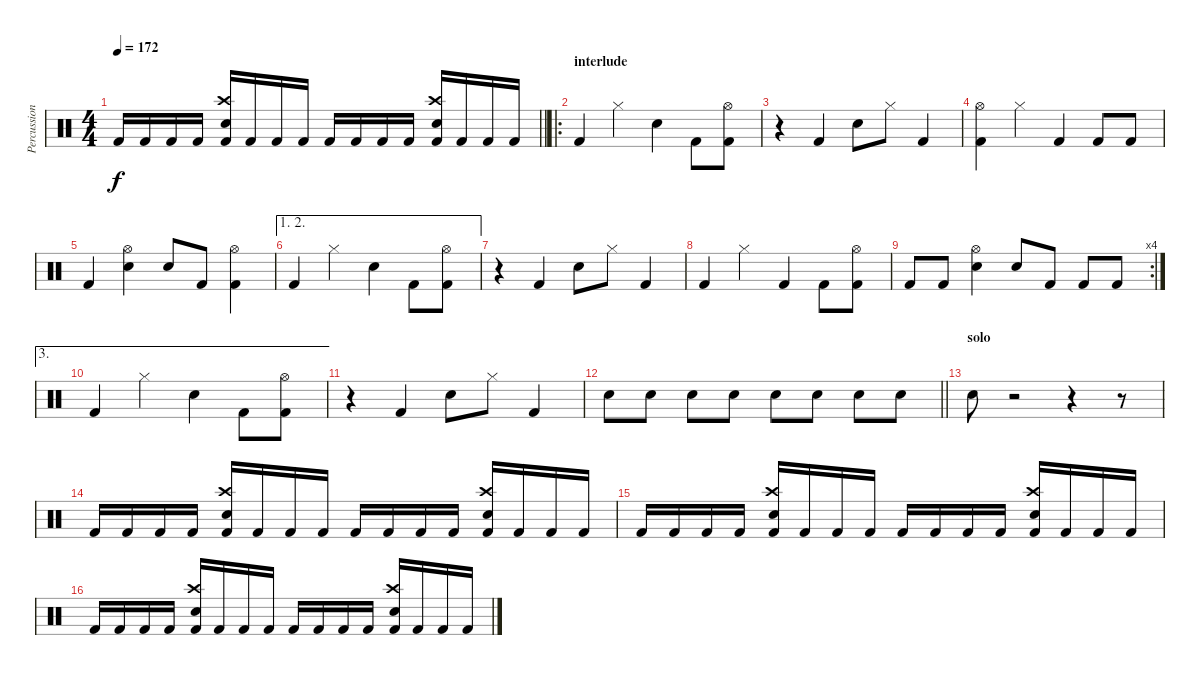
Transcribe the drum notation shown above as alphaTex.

\track ("Percussion" "Percussion") {instrument percussion}
\staff {score}
\articulation defaults
\ts (4 4)
\tempo 172
\clef neutral
\barLineRight lightlight
\ks c "Kick (hit) 2".16{dy f} "Kick (hit) 2".16 "Kick (hit) 2".16 "Kick (hit) 2".16
("Crash high (hit)" "Electric Snare (hit)" "Kick (hit) 2").16 "Kick (hit) 2".16 "Kick (hit) 2".16 "Kick (hit) 2".16 "Kick (hit) 2".16 "Kick (hit) 2".16 "Kick (hit) 2".16 "Kick (hit) 2".16 ("Crash high (hit)" "Electric Snare (hit)" "Kick (hit) 2").16 "Kick (hit) 2".16 "Kick (hit) 2".16 "Kick (hit) 2".16 |
\ro
\section ("" "interlude")
"Kick (hit) 2".4 "Hi-Hat (closed)".4 "Electric Snare (hit)".4 "Kick (hit) 2".8 ("Hi-Hat (open)" "Kick (hit) 2").8 |
r.4 "Kick (hit) 2".4 "Electric Snare (hit)".8 "Hi-Hat (closed)".8 "Kick (hit) 2".4 |
("Hi-Hat (open)" "Kick (hit) 2").4 "Hi-Hat (closed)".4 "Kick (hit) 2".4 "Kick (hit) 2".8 "Kick (hit) 2".8 |
"Kick (hit) 2".4 ("Hi-Hat (open)" "Electric Snare (hit)").4 "Electric Snare (hit)".8 "Kick (hit) 2".8 ("Hi-Hat (open)" "Kick (hit) 2").4 |
\ae (1 2)
"Kick (hit) 2".4 "Hi-Hat (closed)".4 "Electric Snare (hit)".4 "Kick (hit) 2".8 ("Hi-Hat (open)" "Kick (hit) 2").8 |
r.4 "Kick (hit) 2".4 "Electric Snare (hit)".8 "Hi-Hat (closed)".8 "Kick (hit) 2".4 |
"Kick (hit) 2".4 "Hi-Hat (closed)".4 "Kick (hit) 2".4 "Kick (hit) 2".8 ("Hi-Hat (open)" "Kick (hit) 2").8 |
\rc 4 "Kick (hit) 2".8 "Kick (hit) 2".8
("Hi-Hat (open)" "Electric Snare (hit)").4 "Electric Snare (hit)".8 "Kick (hit) 2".8 "Kick (hit) 2".8 "Kick (hit) 2".8 |
\ae 3 "Kick (hit) 2".4 "Hi-Hat (closed)".4 "Electric Snare (hit)".4 "Kick (hit) 2".8
("Hi-Hat (open)" "Kick (hit) 2").8 |
r.4 "Kick (hit) 2".4 "Electric Snare (hit)".8 "Hi-Hat (closed)".8 "Kick (hit) 2".4 |
\barLineRight lightlight "Electric Snare (hit)".8 "Electric Snare (hit)".8 "Electric Snare (hit)".8 "Electric Snare (hit)".8 "Electric Snare (hit)".8 "Electric Snare (hit)".8 "Electric Snare (hit)".8 "Electric Snare (hit)".8
|
\section ("" "solo")
"Electric Snare (hit)".8 r.2 r.4 r.8 |
"Kick (hit) 2".16 "Kick (hit) 2".16 "Kick (hit) 2".16 "Kick (hit) 2".16 ("Crash high (hit)" "Electric Snare (hit)" "Kick (hit) 2").16 "Kick (hit) 2".16 "Kick (hit) 2".16 "Kick (hit) 2".16 "Kick (hit) 2".16 "Kick (hit) 2".16 "Kick (hit) 2".16 "Kick (hit) 2".16 ("Crash high (hit)" "Electric Snare (hit)" "Kick (hit) 2").16 "Kick (hit) 2".16 "Kick (hit) 2".16 "Kick (hit) 2".16 |
"Kick (hit) 2".16 "Kick (hit) 2".16 "Kick (hit) 2".16 "Kick (hit) 2".16 ("Crash high (hit)" "Electric Snare (hit)" "Kick (hit) 2").16 "Kick (hit) 2".16 "Kick (hit) 2".16 "Kick (hit) 2".16 "Kick (hit) 2".16 "Kick (hit) 2".16 "Kick (hit) 2".16 "Kick (hit) 2".16 ("Crash high (hit)" "Electric Snare (hit)" "Kick (hit) 2").16 "Kick (hit) 2".16 "Kick (hit) 2".16 "Kick (hit) 2".16 |
"Kick (hit) 2".16 "Kick (hit) 2".16 "Kick (hit) 2".16 "Kick (hit) 2".16 ("Crash high (hit)" "Electric Snare (hit)" "Kick (hit) 2").16 "Kick (hit) 2".16 "Kick (hit) 2".16 "Kick (hit) 2".16 "Kick (hit) 2".16 "Kick (hit) 2".16 "Kick (hit) 2".16 "Kick (hit) 2".16 ("Crash high (hit)" "Electric Snare (hit)" "Kick (hit) 2").16 "Kick (hit) 2".16 "Kick (hit) 2".16 "Kick (hit) 2".16
